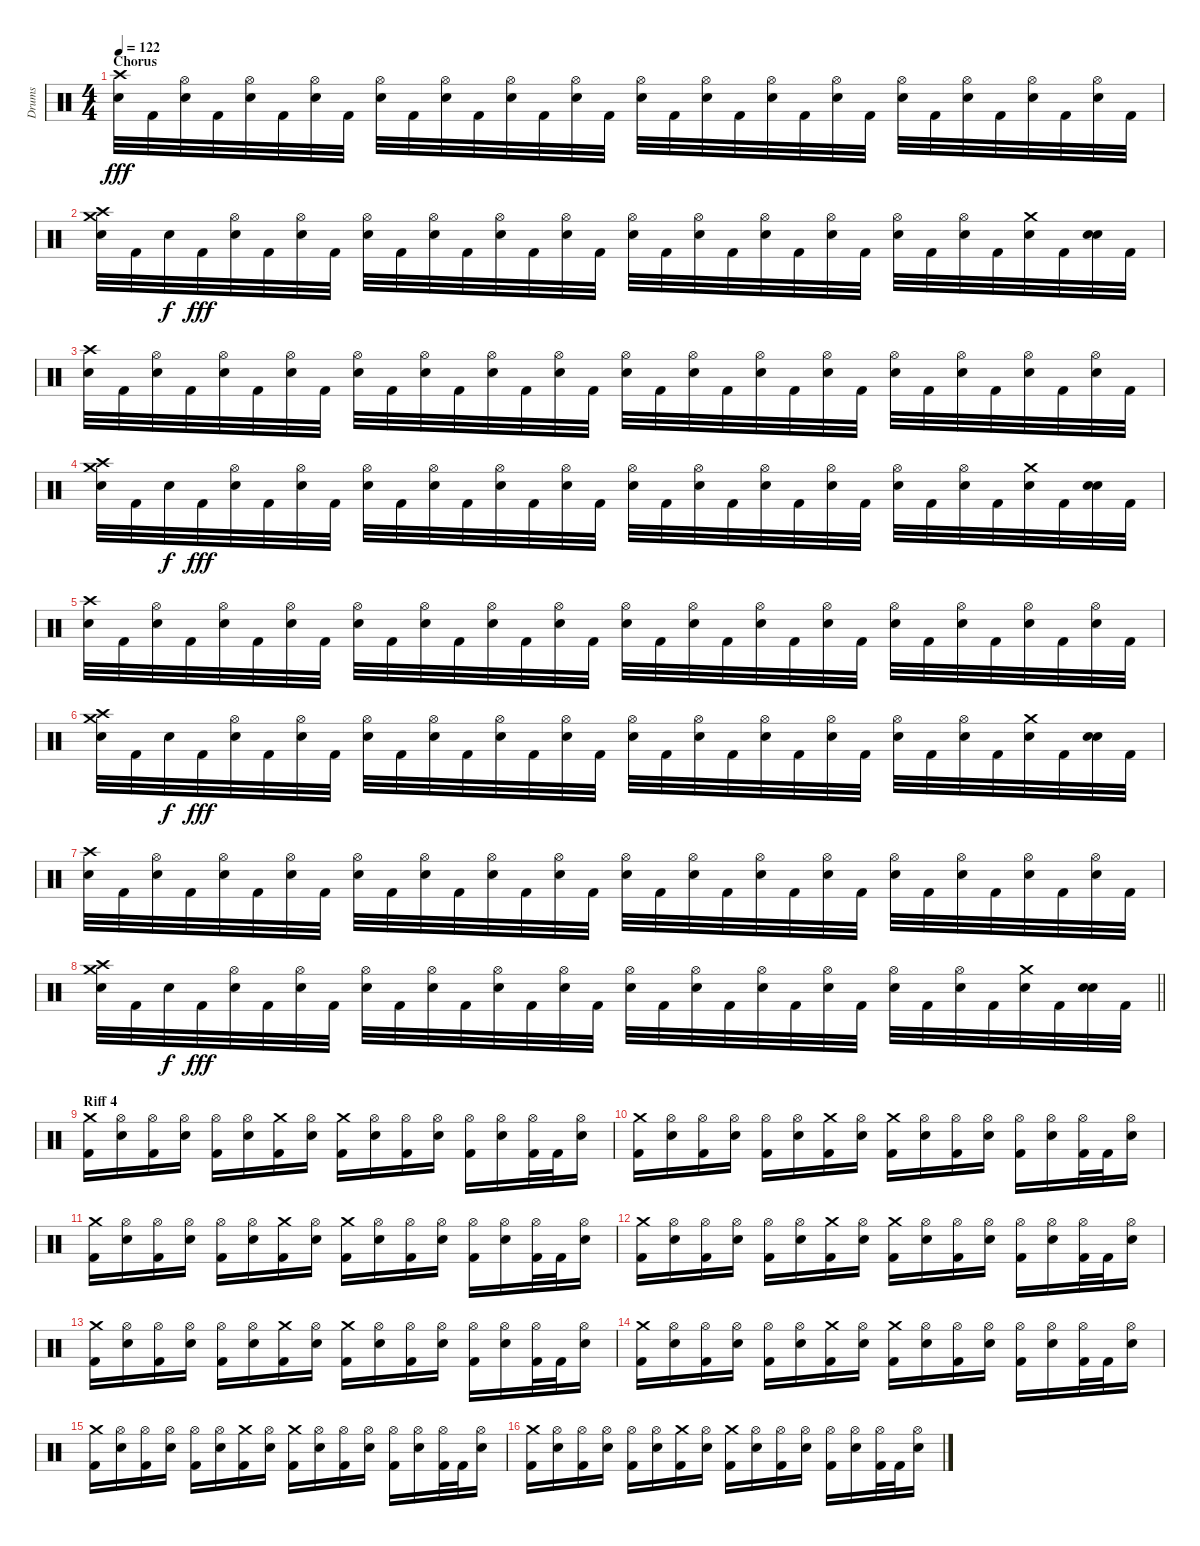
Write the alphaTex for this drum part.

\track ("Drums" "Drums") {instrument percussion}
\staff {score}
\articulation defaults
\ts (4 4)
\section ("" "Chorus")
\tempo 122
\clef neutral
\ks c
("Snare (hit) 2" "Crash high (hit)").32{dy fff} "Kick (hit) 2".32 ("Snare (hit) 2" "Hi-Hat (open)").32 "Kick (hit) 2".32 ("Hi-Hat (open)" "Snare (hit) 2").32 "Kick (hit) 2".32 ("Snare (hit) 2" "Hi-Hat (open)").32 "Kick (hit) 2".32 ("Hi-Hat (open)" "Snare (hit) 2").32 "Kick (hit) 2".32 ("Snare (hit) 2" "Hi-Hat (open)").32 "Kick (hit) 2".32 ("Snare (hit) 2" "Hi-Hat (open)").32 "Kick (hit) 2".32 ("Hi-Hat (open)" "Snare (hit) 2").32 "Kick (hit) 2".32 ("Snare (hit) 2" "Hi-Hat (open)").32 "Kick (hit) 2".32 ("Hi-Hat (open)" "Snare (hit) 2").32 "Kick (hit) 2".32 ("Snare (hit) 2" "Hi-Hat (open)").32 "Kick (hit) 2".32 ("Snare (hit) 2" "Hi-Hat (open)").32 "Kick (hit) 2".32 ("Hi-Hat (open)" "Snare (hit) 2").32 "Kick (hit) 2".32 ("Snare (hit) 2" "Hi-Hat (open)").32 "Kick (hit) 2".32 ("Hi-Hat (open)" "Snare (hit) 2").32 "Kick (hit) 2".32 ("Snare (hit) 2" "Hi-Hat (open)").32 "Kick (hit) 2".32 |
("Snare (hit) 2" "Crash high (hit)" "Crash medium (hit)").32 "Kick (hit) 2".32 "Snare (hit) 2".32{dy f} "Kick (hit) 2".32{dy fff} ("Snare (hit) 2" "Hi-Hat (open)").32 "Kick (hit) 2".32 ("Hi-Hat (open)" "Snare (hit) 2").32 "Kick (hit) 2".32 ("Snare (hit) 2" "Hi-Hat (open)").32 "Kick (hit) 2".32 ("Snare (hit) 2" "Hi-Hat (open)").32 "Kick (hit) 2".32 ("Hi-Hat (open)" "Snare (hit) 2").32 "Kick (hit) 2".32 ("Snare (hit) 2" "Hi-Hat (open)").32 "Kick (hit) 2".32 ("Hi-Hat (open)" "Snare (hit) 2").32 "Kick (hit) 2".32 ("Snare (hit) 2" "Hi-Hat (open)").32 "Kick (hit) 2".32 ("Snare (hit) 2" "Hi-Hat (open)").32 "Kick (hit) 2".32 ("Hi-Hat (open)" "Snare (hit) 2").32 "Kick (hit) 2".32 ("Snare (hit) 2" "Hi-Hat (open)").32 "Kick (hit) 2".32 ("Hi-Hat (open)" "Snare (hit) 2").32 "Kick (hit) 2".32 ("Snare (hit) 2" "Crash medium (hit)").32 "Kick (hit) 2".32 ("Snare (hit) 2" "Snare (hit) 2").32 "Kick (hit) 2".32 |
("Snare (hit) 2" "Crash high (hit)").32 "Kick (hit) 2".32 ("Snare (hit) 2" "Hi-Hat (open)").32 "Kick (hit) 2".32 ("Hi-Hat (open)" "Snare (hit) 2").32 "Kick (hit) 2".32 ("Snare (hit) 2" "Hi-Hat (open)").32 "Kick (hit) 2".32 ("Hi-Hat (open)" "Snare (hit) 2").32 "Kick (hit) 2".32 ("Snare (hit) 2" "Hi-Hat (open)").32 "Kick (hit) 2".32 ("Snare (hit) 2" "Hi-Hat (open)").32 "Kick (hit) 2".32 ("Hi-Hat (open)" "Snare (hit) 2").32 "Kick (hit) 2".32 ("Snare (hit) 2" "Hi-Hat (open)").32 "Kick (hit) 2".32 ("Hi-Hat (open)" "Snare (hit) 2").32 "Kick (hit) 2".32 ("Snare (hit) 2" "Hi-Hat (open)").32 "Kick (hit) 2".32 ("Snare (hit) 2" "Hi-Hat (open)").32 "Kick (hit) 2".32 ("Hi-Hat (open)" "Snare (hit) 2").32 "Kick (hit) 2".32 ("Snare (hit) 2" "Hi-Hat (open)").32 "Kick (hit) 2".32 ("Hi-Hat (open)" "Snare (hit) 2").32 "Kick (hit) 2".32 ("Snare (hit) 2" "Hi-Hat (open)").32 "Kick (hit) 2".32 |
("Snare (hit) 2" "Crash high (hit)" "Crash medium (hit)").32 "Kick (hit) 2".32 "Snare (hit) 2".32{dy f} "Kick (hit) 2".32{dy fff} ("Snare (hit) 2" "Hi-Hat (open)").32 "Kick (hit) 2".32 ("Hi-Hat (open)" "Snare (hit) 2").32 "Kick (hit) 2".32 ("Snare (hit) 2" "Hi-Hat (open)").32 "Kick (hit) 2".32 ("Snare (hit) 2" "Hi-Hat (open)").32 "Kick (hit) 2".32 ("Hi-Hat (open)" "Snare (hit) 2").32 "Kick (hit) 2".32 ("Snare (hit) 2" "Hi-Hat (open)").32 "Kick (hit) 2".32 ("Hi-Hat (open)" "Snare (hit) 2").32 "Kick (hit) 2".32 ("Snare (hit) 2" "Hi-Hat (open)").32 "Kick (hit) 2".32 ("Snare (hit) 2" "Hi-Hat (open)").32 "Kick (hit) 2".32 ("Hi-Hat (open)" "Snare (hit) 2").32 "Kick (hit) 2".32 ("Snare (hit) 2" "Hi-Hat (open)").32 "Kick (hit) 2".32 ("Hi-Hat (open)" "Snare (hit) 2").32 "Kick (hit) 2".32 ("Snare (hit) 2" "Crash medium (hit)").32 "Kick (hit) 2".32 ("Snare (hit) 2" "Snare (hit) 2").32 "Kick (hit) 2".32 |
("Snare (hit) 2" "Crash high (hit)").32 "Kick (hit) 2".32 ("Snare (hit) 2" "Hi-Hat (open)").32 "Kick (hit) 2".32 ("Hi-Hat (open)" "Snare (hit) 2").32 "Kick (hit) 2".32 ("Snare (hit) 2" "Hi-Hat (open)").32 "Kick (hit) 2".32 ("Hi-Hat (open)" "Snare (hit) 2").32 "Kick (hit) 2".32 ("Snare (hit) 2" "Hi-Hat (open)").32 "Kick (hit) 2".32 ("Snare (hit) 2" "Hi-Hat (open)").32 "Kick (hit) 2".32 ("Hi-Hat (open)" "Snare (hit) 2").32 "Kick (hit) 2".32 ("Snare (hit) 2" "Hi-Hat (open)").32 "Kick (hit) 2".32 ("Hi-Hat (open)" "Snare (hit) 2").32 "Kick (hit) 2".32 ("Snare (hit) 2" "Hi-Hat (open)").32 "Kick (hit) 2".32 ("Snare (hit) 2" "Hi-Hat (open)").32 "Kick (hit) 2".32 ("Hi-Hat (open)" "Snare (hit) 2").32 "Kick (hit) 2".32 ("Snare (hit) 2" "Hi-Hat (open)").32 "Kick (hit) 2".32 ("Hi-Hat (open)" "Snare (hit) 2").32 "Kick (hit) 2".32 ("Snare (hit) 2" "Hi-Hat (open)").32 "Kick (hit) 2".32 |
("Snare (hit) 2" "Crash high (hit)" "Crash medium (hit)").32 "Kick (hit) 2".32 "Snare (hit) 2".32{dy f} "Kick (hit) 2".32{dy fff} ("Snare (hit) 2" "Hi-Hat (open)").32 "Kick (hit) 2".32 ("Hi-Hat (open)" "Snare (hit) 2").32 "Kick (hit) 2".32 ("Snare (hit) 2" "Hi-Hat (open)").32 "Kick (hit) 2".32 ("Snare (hit) 2" "Hi-Hat (open)").32 "Kick (hit) 2".32 ("Hi-Hat (open)" "Snare (hit) 2").32 "Kick (hit) 2".32 ("Snare (hit) 2" "Hi-Hat (open)").32 "Kick (hit) 2".32 ("Hi-Hat (open)" "Snare (hit) 2").32 "Kick (hit) 2".32 ("Snare (hit) 2" "Hi-Hat (open)").32 "Kick (hit) 2".32 ("Snare (hit) 2" "Hi-Hat (open)").32 "Kick (hit) 2".32 ("Hi-Hat (open)" "Snare (hit) 2").32 "Kick (hit) 2".32 ("Snare (hit) 2" "Hi-Hat (open)").32 "Kick (hit) 2".32 ("Hi-Hat (open)" "Snare (hit) 2").32 "Kick (hit) 2".32 ("Snare (hit) 2" "Crash medium (hit)").32 "Kick (hit) 2".32 ("Snare (hit) 2" "Snare (hit) 2").32 "Kick (hit) 2".32 |
("Snare (hit) 2" "Crash high (hit)").32 "Kick (hit) 2".32 ("Snare (hit) 2" "Hi-Hat (open)").32 "Kick (hit) 2".32 ("Hi-Hat (open)" "Snare (hit) 2").32 "Kick (hit) 2".32 ("Snare (hit) 2" "Hi-Hat (open)").32 "Kick (hit) 2".32 ("Hi-Hat (open)" "Snare (hit) 2").32 "Kick (hit) 2".32 ("Snare (hit) 2" "Hi-Hat (open)").32 "Kick (hit) 2".32 ("Snare (hit) 2" "Hi-Hat (open)").32 "Kick (hit) 2".32 ("Hi-Hat (open)" "Snare (hit) 2").32 "Kick (hit) 2".32 ("Snare (hit) 2" "Hi-Hat (open)").32 "Kick (hit) 2".32 ("Hi-Hat (open)" "Snare (hit) 2").32 "Kick (hit) 2".32 ("Snare (hit) 2" "Hi-Hat (open)").32 "Kick (hit) 2".32 ("Snare (hit) 2" "Hi-Hat (open)").32 "Kick (hit) 2".32 ("Hi-Hat (open)" "Snare (hit) 2").32 "Kick (hit) 2".32 ("Snare (hit) 2" "Hi-Hat (open)").32 "Kick (hit) 2".32 ("Hi-Hat (open)" "Snare (hit) 2").32 "Kick (hit) 2".32 ("Snare (hit) 2" "Hi-Hat (open)").32 "Kick (hit) 2".32 |
\barLineRight lightlight
("Snare (hit) 2" "Crash high (hit)" "Crash medium (hit)").32 "Kick (hit) 2".32 "Snare (hit) 2".32{dy f} "Kick (hit) 2".32{dy fff} ("Snare (hit) 2" "Hi-Hat (open)").32 "Kick (hit) 2".32 ("Hi-Hat (open)" "Snare (hit) 2").32 "Kick (hit) 2".32 ("Snare (hit) 2" "Hi-Hat (open)").32 "Kick (hit) 2".32 ("Snare (hit) 2" "Hi-Hat (open)").32 "Kick (hit) 2".32 ("Hi-Hat (open)" "Snare (hit) 2").32 "Kick (hit) 2".32 ("Snare (hit) 2" "Hi-Hat (open)").32 "Kick (hit) 2".32 ("Hi-Hat (open)" "Snare (hit) 2").32 "Kick (hit) 2".32 ("Snare (hit) 2" "Hi-Hat (open)").32 "Kick (hit) 2".32 ("Snare (hit) 2" "Hi-Hat (open)").32 "Kick (hit) 2".32 ("Hi-Hat (open)" "Snare (hit) 2").32 "Kick (hit) 2".32 ("Snare (hit) 2" "Hi-Hat (open)").32 "Kick (hit) 2".32 ("Hi-Hat (open)" "Snare (hit) 2").32 "Kick (hit) 2".32 ("Snare (hit) 2" "Crash medium (hit)").32 "Kick (hit) 2".32 ("Snare (hit) 2" "Snare (hit) 2").32 "Kick (hit) 2".32 |
\section ("" "Riff 4")
("Kick (hit) 2" "Crash medium (hit)").16 ("Snare (hit) 2" "Hi-Hat (open)").16 ("Kick (hit) 2" "Hi-Hat (open)").16 ("Snare (hit) 2" "Hi-Hat (open)").16 ("Kick (hit) 2" "Hi-Hat (open)").16 ("Snare (hit) 2" "Hi-Hat (open)").16 ("Kick (hit) 2" "Crash medium (hit)").16 ("Snare (hit) 2" "Hi-Hat (open)").16 ("Kick (hit) 2" "Crash medium (hit)").16 ("Snare (hit) 2" "Hi-Hat (open)").16 ("Kick (hit) 2" "Hi-Hat (open)").16 ("Snare (hit) 2" "Hi-Hat (open)").16 ("Kick (hit) 2" "Hi-Hat (open)").16 ("Snare (hit) 2" "Hi-Hat (open)").16 ("Kick (hit) 2" "Hi-Hat (open)").32 "Kick (hit) 2".32 ("Snare (hit) 2" "Hi-Hat (open)").16 |
("Kick (hit) 2" "Crash medium (hit)").16 ("Snare (hit) 2" "Hi-Hat (open)").16 ("Kick (hit) 2" "Hi-Hat (open)").16 ("Snare (hit) 2" "Hi-Hat (open)").16 ("Kick (hit) 2" "Hi-Hat (open)").16 ("Snare (hit) 2" "Hi-Hat (open)").16 ("Kick (hit) 2" "Crash medium (hit)").16 ("Snare (hit) 2" "Hi-Hat (open)").16 ("Kick (hit) 2" "Crash medium (hit)").16 ("Snare (hit) 2" "Hi-Hat (open)").16 ("Kick (hit) 2" "Hi-Hat (open)").16 ("Snare (hit) 2" "Hi-Hat (open)").16 ("Kick (hit) 2" "Hi-Hat (open)").16 ("Snare (hit) 2" "Hi-Hat (open)").16 ("Kick (hit) 2" "Hi-Hat (open)").32 "Kick (hit) 2".32 ("Snare (hit) 2" "Hi-Hat (open)").16 |
("Kick (hit) 2" "Crash medium (hit)").16 ("Snare (hit) 2" "Hi-Hat (open)").16 ("Kick (hit) 2" "Hi-Hat (open)").16 ("Snare (hit) 2" "Hi-Hat (open)").16 ("Kick (hit) 2" "Hi-Hat (open)").16 ("Snare (hit) 2" "Hi-Hat (open)").16 ("Kick (hit) 2" "Crash medium (hit)").16 ("Snare (hit) 2" "Hi-Hat (open)").16 ("Kick (hit) 2" "Crash medium (hit)").16 ("Snare (hit) 2" "Hi-Hat (open)").16 ("Kick (hit) 2" "Hi-Hat (open)").16 ("Snare (hit) 2" "Hi-Hat (open)").16 ("Kick (hit) 2" "Hi-Hat (open)").16 ("Snare (hit) 2" "Hi-Hat (open)").16 ("Kick (hit) 2" "Hi-Hat (open)").32 "Kick (hit) 2".32 ("Snare (hit) 2" "Hi-Hat (open)").16 |
("Kick (hit) 2" "Crash medium (hit)").16 ("Snare (hit) 2" "Hi-Hat (open)").16 ("Kick (hit) 2" "Hi-Hat (open)").16 ("Snare (hit) 2" "Hi-Hat (open)").16 ("Kick (hit) 2" "Hi-Hat (open)").16 ("Snare (hit) 2" "Hi-Hat (open)").16 ("Kick (hit) 2" "Crash medium (hit)").16 ("Snare (hit) 2" "Hi-Hat (open)").16 ("Kick (hit) 2" "Crash medium (hit)").16 ("Snare (hit) 2" "Hi-Hat (open)").16 ("Kick (hit) 2" "Hi-Hat (open)").16 ("Snare (hit) 2" "Hi-Hat (open)").16 ("Kick (hit) 2" "Hi-Hat (open)").16 ("Snare (hit) 2" "Hi-Hat (open)").16 ("Kick (hit) 2" "Hi-Hat (open)").32 "Kick (hit) 2".32 ("Snare (hit) 2" "Hi-Hat (open)").16 |
("Kick (hit) 2" "Crash medium (hit)").16 ("Snare (hit) 2" "Hi-Hat (open)").16 ("Kick (hit) 2" "Hi-Hat (open)").16 ("Snare (hit) 2" "Hi-Hat (open)").16 ("Kick (hit) 2" "Hi-Hat (open)").16 ("Snare (hit) 2" "Hi-Hat (open)").16 ("Kick (hit) 2" "Crash medium (hit)").16 ("Snare (hit) 2" "Hi-Hat (open)").16 ("Kick (hit) 2" "Crash medium (hit)").16 ("Snare (hit) 2" "Hi-Hat (open)").16 ("Kick (hit) 2" "Hi-Hat (open)").16 ("Snare (hit) 2" "Hi-Hat (open)").16 ("Kick (hit) 2" "Hi-Hat (open)").16 ("Snare (hit) 2" "Hi-Hat (open)").16 ("Kick (hit) 2" "Hi-Hat (open)").32 "Kick (hit) 2".32 ("Snare (hit) 2" "Hi-Hat (open)").16 |
("Kick (hit) 2" "Crash medium (hit)").16 ("Snare (hit) 2" "Hi-Hat (open)").16 ("Kick (hit) 2" "Hi-Hat (open)").16 ("Snare (hit) 2" "Hi-Hat (open)").16 ("Kick (hit) 2" "Hi-Hat (open)").16 ("Snare (hit) 2" "Hi-Hat (open)").16 ("Kick (hit) 2" "Crash medium (hit)").16 ("Snare (hit) 2" "Hi-Hat (open)").16 ("Kick (hit) 2" "Crash medium (hit)").16 ("Snare (hit) 2" "Hi-Hat (open)").16 ("Kick (hit) 2" "Hi-Hat (open)").16 ("Snare (hit) 2" "Hi-Hat (open)").16 ("Kick (hit) 2" "Hi-Hat (open)").16 ("Snare (hit) 2" "Hi-Hat (open)").16 ("Kick (hit) 2" "Hi-Hat (open)").32 "Kick (hit) 2".32 ("Snare (hit) 2" "Hi-Hat (open)").16 |
("Kick (hit) 2" "Crash medium (hit)").16 ("Snare (hit) 2" "Hi-Hat (open)").16 ("Kick (hit) 2" "Hi-Hat (open)").16 ("Snare (hit) 2" "Hi-Hat (open)").16 ("Kick (hit) 2" "Hi-Hat (open)").16 ("Snare (hit) 2" "Hi-Hat (open)").16 ("Kick (hit) 2" "Crash medium (hit)").16 ("Snare (hit) 2" "Hi-Hat (open)").16 ("Kick (hit) 2" "Crash medium (hit)").16 ("Snare (hit) 2" "Hi-Hat (open)").16 ("Kick (hit) 2" "Hi-Hat (open)").16 ("Snare (hit) 2" "Hi-Hat (open)").16 ("Kick (hit) 2" "Hi-Hat (open)").16 ("Snare (hit) 2" "Hi-Hat (open)").16 ("Kick (hit) 2" "Hi-Hat (open)").32 "Kick (hit) 2".32 ("Snare (hit) 2" "Hi-Hat (open)").16 |
("Kick (hit) 2" "Crash medium (hit)").16 ("Snare (hit) 2" "Hi-Hat (open)").16 ("Kick (hit) 2" "Hi-Hat (open)").16 ("Snare (hit) 2" "Hi-Hat (open)").16 ("Kick (hit) 2" "Hi-Hat (open)").16 ("Snare (hit) 2" "Hi-Hat (open)").16 ("Kick (hit) 2" "Crash medium (hit)").16 ("Snare (hit) 2" "Hi-Hat (open)").16 ("Kick (hit) 2" "Crash medium (hit)").16 ("Snare (hit) 2" "Hi-Hat (open)").16 ("Kick (hit) 2" "Hi-Hat (open)").16 ("Snare (hit) 2" "Hi-Hat (open)").16 ("Kick (hit) 2" "Hi-Hat (open)").16 ("Snare (hit) 2" "Hi-Hat (open)").16 ("Kick (hit) 2" "Hi-Hat (open)").32 "Kick (hit) 2".32 ("Snare (hit) 2" "Hi-Hat (open)").16
